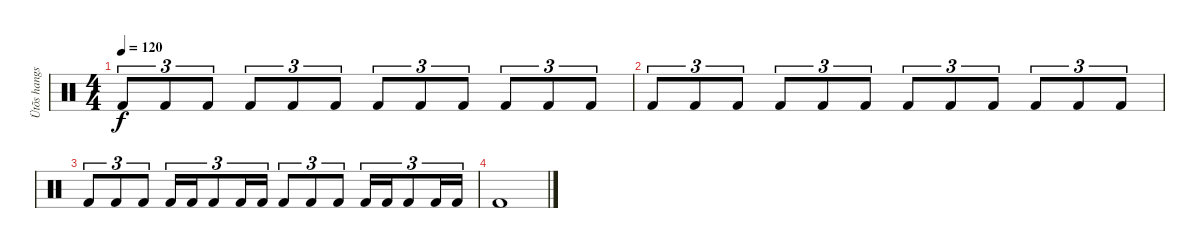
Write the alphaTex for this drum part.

\track ("Ütõs hangszer" "Ütõs hangs") {instrument percussion}
\staff {score}
\articulation defaults
\ts (4 4)
\tempo 120
\clef neutral
\ks c "Kick (hit) 2".8{tu (3 2) dy f} "Kick (hit) 2".8{tu (3 2)} "Kick (hit) 2".8{tu (3 2)} "Kick (hit) 2".8{tu (3 2)} "Kick (hit) 2".8{tu (3 2)} "Kick (hit) 2".8{tu (3 2)} "Kick (hit) 2".8{tu (3 2)} "Kick (hit) 2".8{tu (3 2)} "Kick (hit) 2".8{tu (3 2)} "Kick (hit) 2".8{tu (3 2)} "Kick (hit) 2".8{tu (3 2)} "Kick (hit) 2".8{tu (3 2)}
|
"Kick (hit) 2".8{tu (3 2)} "Kick (hit) 2".8{tu (3 2)} "Kick (hit) 2".8{tu (3 2)} "Kick (hit) 2".8{tu (3 2)} "Kick (hit) 2".8{tu (3 2)} "Kick (hit) 2".8{tu (3 2)} "Kick (hit) 2".8{tu (3 2)} "Kick (hit) 2".8{tu (3 2)} "Kick (hit) 2".8{tu (3 2)} "Kick (hit) 2".8{tu (3 2)} "Kick (hit) 2".8{tu (3 2)} "Kick (hit) 2".8{tu (3 2)} |
"Kick (hit) 2".8{tu (3 2)} "Kick (hit) 2".8{tu (3 2)} "Kick (hit) 2".8{tu (3 2)} "Kick (hit) 2".16{tu (3 2)} "Kick (hit) 2".16{tu (3 2)} "Kick (hit) 2".8{tu (3 2)} "Kick (hit) 2".16{tu (3 2)} "Kick (hit) 2".16{tu (3 2)} "Kick (hit) 2".8{tu (3 2)} "Kick (hit) 2".8{tu (3 2)} "Kick (hit) 2".8{tu (3 2)} "Kick (hit) 2".16{tu (3 2)} "Kick (hit) 2".16{tu (3 2)} "Kick (hit) 2".8{tu (3 2)} "Kick (hit) 2".16{tu (3 2)} "Kick (hit) 2".16{tu (3 2)} |
"Kick (hit) 2".1
